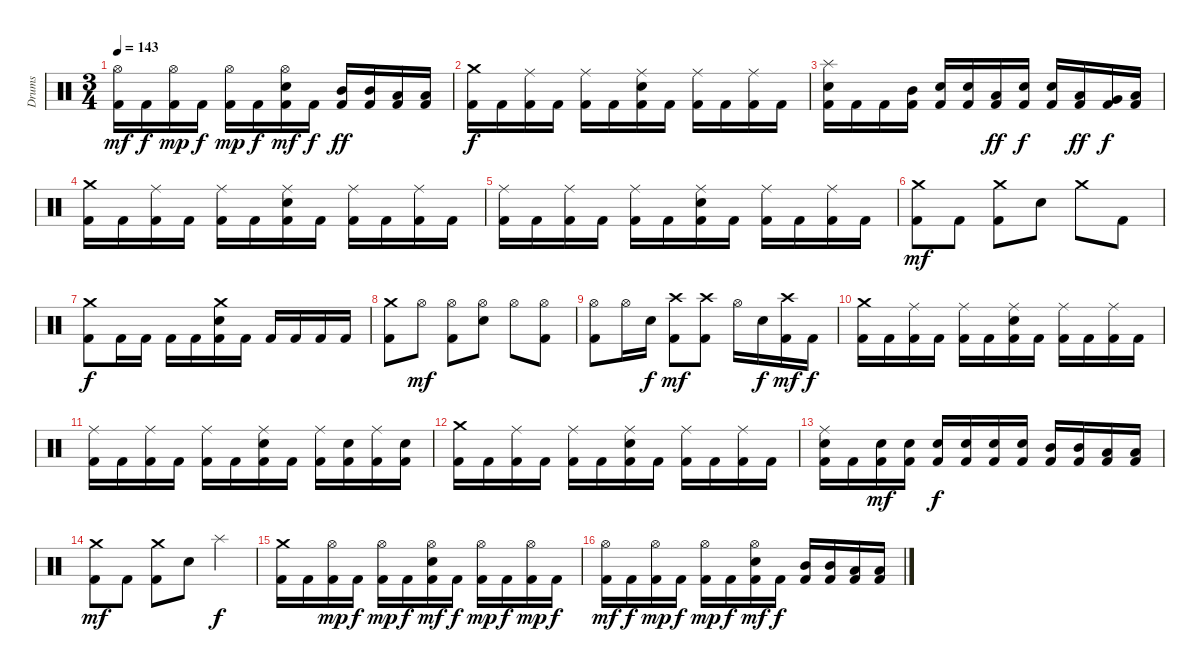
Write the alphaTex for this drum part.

\track ("Drums" "Drums") {instrument percussion}
\staff {score}
\articulation defaults
\ts (3 4)
\tempo 143
\clef neutral
\ks c
("Hi-Hat (open)" "Kick (hit) 2").16{dy mf} "Kick (hit) 2".16{dy f} ("Hi-Hat (open)" "Kick (hit) 2").16{dy mp} "Kick (hit) 2".16{dy f} ("Hi-Hat (open)" "Kick (hit) 2").16{dy mp} "Kick (hit) 2".16{dy f} ("Hi-Hat (open)" "Electric Snare (hit)" "Kick (hit) 2").16{dy mf} "Kick (hit) 2".16{dy f} ("Mid Tom (hit)" "Kick (hit) 2").16{dy ff} ("Mid Tom (hit)" "Kick (hit) 2").16 ("Low Tom (hit)" "Kick (hit) 2").16 ("Low Tom (hit)" "Kick (hit) 2").16 |
("Crash medium (hit)" "Kick (hit) 2").16{dy f} "Kick (hit) 2".16 ("Ride (middle)" "Kick (hit) 2").16 "Kick (hit) 2".16 ("Ride (middle)" "Kick (hit) 2").16 "Kick (hit) 2".16 ("Ride (middle)" "Electric Snare (hit)" "Kick (hit) 2").16 "Kick (hit) 2".16 ("Ride (middle)" "Kick (hit) 2").16 "Kick (hit) 2".16 ("Ride (middle)" "Kick (hit) 2").16 "Kick (hit) 2".16 |
("Splash (hit)" "Electric Snare (hit)" "Kick (hit) 2").16 "Kick (hit) 2".16 "Kick (hit) 2".16 ("Mid Tom (hit)" "Kick (hit) 2").16 ("Electric Snare (hit)" "Kick (hit) 2").16 ("Electric Snare (hit)" "Kick (hit) 2").16 ("Low Tom (hit)" "Kick (hit) 2").16{dy ff} ("Electric Snare (hit)" "Kick (hit) 2").16{dy f} ("Electric Snare (hit)" "Kick (hit) 2").16 ("Low Tom (hit)" "Kick (hit) 2").16{dy ff} ("Very Low Tom (hit)" "Kick (hit) 2").16{dy f} ("Low Floor Tom (hit)" "Kick (hit) 2").16 |
("Crash medium (hit)" "Kick (hit) 2").16 "Kick (hit) 2".16 ("Ride (middle)" "Kick (hit) 2").16 "Kick (hit) 2".16 ("Ride (middle)" "Kick (hit) 2").16 "Kick (hit) 2".16 ("Ride (middle)" "Electric Snare (hit)" "Kick (hit) 2").16 "Kick (hit) 2".16 ("Ride (middle)" "Kick (hit) 2").16 "Kick (hit) 2".16 ("Ride (middle)" "Kick (hit) 2").16 "Kick (hit) 2".16 |
("Ride (middle)" "Kick (hit) 2").16 "Kick (hit) 2".16 ("Ride (middle)" "Kick (hit) 2").16 "Kick (hit) 2".16 ("Ride (middle)" "Kick (hit) 2").16 "Kick (hit) 2".16 ("Ride (middle)" "Electric Snare (hit)" "Kick (hit) 2").16 "Kick (hit) 2".16 ("Ride (middle)" "Kick (hit) 2").16 "Kick (hit) 2".16 ("Ride (middle)" "Kick (hit) 2").16 "Kick (hit) 2".16 |
("Crash medium (hit)" "Kick (hit) 2").8{dy mf} "Kick (hit) 2".8 ("Crash medium (hit)" "Kick (hit) 2").8 "Electric Snare (hit)".8 "Crash medium (hit)".8 "Kick (hit) 2".8 |
("Crash medium (hit)" "Kick (hit) 2").8{dy f} "Kick (hit) 2".16 "Kick (hit) 2".16 "Kick (hit) 2".16 "Kick (hit) 2".16 ("Crash medium (hit)" "Electric Snare (hit)" "Kick (hit) 2").16 "Kick (hit) 2".16 "Kick (hit) 2".16 "Kick (hit) 2".16 "Kick (hit) 2".16 "Kick (hit) 2".16 |
("Crash medium (hit)" "Kick (hit) 2").8 "Hi-Hat (open)".8{dy mf} ("Hi-Hat (open)" "Kick (hit) 2").8 ("Hi-Hat (open)" "Electric Snare (hit)").8 "Hi-Hat (open)".8 ("Hi-Hat (open)" "Kick (hit) 2").8 |
("Hi-Hat (open)" "Kick (hit) 2").8 "Hi-Hat (open)".16 "Electric Snare (hit)".16{dy f} ("Crash high (hit)" "Kick (hit) 2").8{dy mf} ("Crash high (hit)" "Kick (hit) 2").8 "Hi-Hat (open)".16 "Electric Snare (hit)".16{dy f} ("Crash high (hit)" "Kick (hit) 2").16{dy mf} "Kick (hit) 2".16{dy f} |
("Crash medium (hit)" "Kick (hit) 2").16 "Kick (hit) 2".16 ("Ride (middle)" "Kick (hit) 2").16 "Kick (hit) 2".16 ("Ride (middle)" "Kick (hit) 2").16 "Kick (hit) 2".16 ("Ride (middle)" "Electric Snare (hit)" "Kick (hit) 2").16 "Kick (hit) 2".16 ("Ride (middle)" "Kick (hit) 2").16 "Kick (hit) 2".16 ("Ride (middle)" "Kick (hit) 2").16 "Kick (hit) 2".16 |
("Ride (middle)" "Kick (hit) 2").16 "Kick (hit) 2".16 ("Ride (middle)" "Kick (hit) 2").16 "Kick (hit) 2".16 ("Ride (middle)" "Kick (hit) 2").16 "Kick (hit) 2".16 ("Ride (middle)" "Electric Snare (hit)" "Kick (hit) 2").16 "Kick (hit) 2".16 ("Ride (middle)" "Kick (hit) 2").16 ("Electric Snare (hit)" "Kick (hit) 2").16 ("Ride (middle)" "Kick (hit) 2").16 ("Electric Snare (hit)" "Kick (hit) 2").16 |
("Crash medium (hit)" "Kick (hit) 2").16 "Kick (hit) 2".16 ("Ride (middle)" "Kick (hit) 2").16 "Kick (hit) 2".16 ("Ride (middle)" "Kick (hit) 2").16 "Kick (hit) 2".16 ("Ride (middle)" "Electric Snare (hit)" "Kick (hit) 2").16 "Kick (hit) 2".16 ("Ride (middle)" "Kick (hit) 2").16 "Kick (hit) 2".16 ("Ride (middle)" "Kick (hit) 2").16 "Kick (hit) 2".16 |
("Ride (middle)" "Electric Snare (hit)" "Kick (hit) 2").16 "Kick (hit) 2".16 ("Electric Snare (hit)" "Kick (hit) 2").16{dy mf} ("Electric Snare (hit)" "Kick (hit) 2").16 ("Electric Snare (hit)" "Kick (hit) 2").16{dy f} ("Electric Snare (hit)" "Kick (hit) 2").16 ("Electric Snare (hit)" "Kick (hit) 2").16 ("Electric Snare (hit)" "Kick (hit) 2").16 ("Mid Tom (hit)" "Kick (hit) 2").16 ("Mid Tom (hit)" "Kick (hit) 2").16 ("Low Tom (hit)" "Kick (hit) 2").16 ("Low Tom (hit)" "Kick (hit) 2").16 |
("Crash medium (hit)" "Kick (hit) 2").8{dy mf} "Kick (hit) 2".8 ("Crash medium (hit)" "Kick (hit) 2").8 "Electric Snare (hit)".8 "Splash (hit)".4{dy f} |
("Crash medium (hit)" "Kick (hit) 2").16 "Kick (hit) 2".16 ("Hi-Hat (open)" "Kick (hit) 2").16{dy mp} "Kick (hit) 2".16{dy f} ("Hi-Hat (open)" "Kick (hit) 2").16{dy mp} "Kick (hit) 2".16{dy f} ("Hi-Hat (open)" "Electric Snare (hit)" "Kick (hit) 2").16{dy mf} "Kick (hit) 2".16{dy f} ("Hi-Hat (open)" "Kick (hit) 2").16{dy mp} "Kick (hit) 2".16{dy f} ("Hi-Hat (open)" "Kick (hit) 2").16{dy mp} "Kick (hit) 2".16{dy f} |
("Hi-Hat (open)" "Kick (hit) 2").16{dy mf} "Kick (hit) 2".16{dy f} ("Hi-Hat (open)" "Kick (hit) 2").16{dy mp} "Kick (hit) 2".16{dy f} ("Hi-Hat (open)" "Kick (hit) 2").16{dy mp} "Kick (hit) 2".16{dy f} ("Hi-Hat (open)" "Electric Snare (hit)" "Kick (hit) 2").16{dy mf} "Kick (hit) 2".16{dy f} ("Mid Tom (hit)" "Kick (hit) 2").16 ("Mid Tom (hit)" "Kick (hit) 2").16 ("Low Tom (hit)" "Kick (hit) 2").16 ("Low Tom (hit)" "Kick (hit) 2").16
